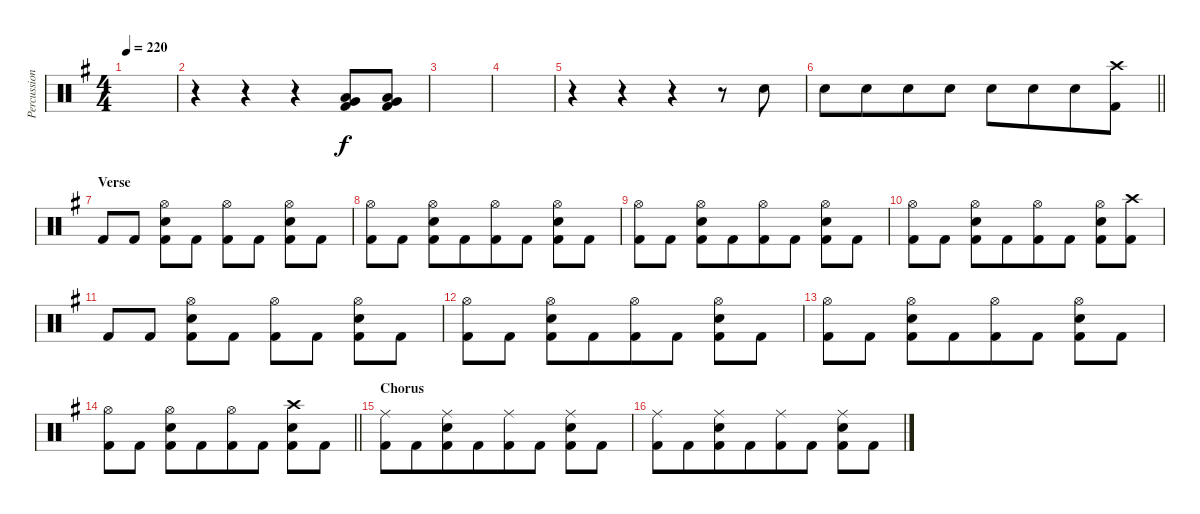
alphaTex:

\track ("Percussion" "Percussion") {instrument percussion}
\staff {score}
\articulation defaults
\ts (4 4)
\tempo 220
\clef neutral
\ks eminor
|
r.4 r.4 r.4 ("Very Low Tom (hit)" "Low Floor Tom (hit)" "Kick (hit) 2").8 ("Very Low Tom (hit)" "Low Floor Tom (hit)" "Kick (hit) 2").8 |
|
|
r.4{beam merge} r.4 r.4{beam merge} r.8 "Snare (hit) 2".8 |
\barLineRight lightlight "Snare (hit) 2".8 "Snare (hit) 2".8{beam merge} "Snare (hit) 2".8{beam merge} "Snare (hit) 2".8 "Snare (hit) 2".8 "Snare (hit) 2".8{beam merge} "Snare (hit) 2".8
("Crash high (hit)" "Kick (hit) 2").8 |
\section ("" "Verse")
"Kick (hit) 2".8{beam merge} "Kick (hit) 2".8 ("Hi-Hat (open)" "Snare (hit) 2" "Kick (hit) 2").8 "Kick (hit) 2".8 ("Hi-Hat (open)" "Kick (hit) 2").8 "Kick (hit) 2".8 ("Hi-Hat (open)" "Snare (hit) 2" "Kick (hit) 2").8{beam merge} "Kick (hit) 2".8 |
("Hi-Hat (open)" "Kick (hit) 2").8 "Kick (hit) 2".8 ("Hi-Hat (open)" "Snare (hit) 2" "Kick (hit) 2").8{beam merge} "Kick (hit) 2".8{beam merge} ("Hi-Hat (open)" "Kick (hit) 2").8{beam merge} "Kick (hit) 2".8 ("Hi-Hat (open)" "Snare (hit) 2" "Kick (hit) 2").8 "Kick (hit) 2".8 |
("Hi-Hat (open)" "Kick (hit) 2").8 "Kick (hit) 2".8 ("Hi-Hat (open)" "Snare (hit) 2" "Kick (hit) 2").8{beam merge} "Kick (hit) 2".8{beam merge} ("Hi-Hat (open)" "Kick (hit) 2").8{beam merge} "Kick (hit) 2".8 ("Hi-Hat (open)" "Snare (hit) 2" "Kick (hit) 2").8 "Kick (hit) 2".8 |
("Hi-Hat (open)" "Kick (hit) 2").8 "Kick (hit) 2".8 ("Hi-Hat (open)" "Snare (hit) 2" "Kick (hit) 2").8{beam merge} "Kick (hit) 2".8{beam merge} ("Hi-Hat (open)" "Kick (hit) 2").8{beam merge} "Kick (hit) 2".8 ("Hi-Hat (open)" "Snare (hit) 2" "Kick (hit) 2").8 ("Crash high (hit)" "Kick (hit) 2").8 |
"Kick (hit) 2".8{beam merge} "Kick (hit) 2".8 ("Hi-Hat (open)" "Snare (hit) 2" "Kick (hit) 2").8 "Kick (hit) 2".8 ("Hi-Hat (open)" "Kick (hit) 2").8 "Kick (hit) 2".8 ("Hi-Hat (open)" "Snare (hit) 2" "Kick (hit) 2").8{beam merge} "Kick (hit) 2".8 |
("Hi-Hat (open)" "Kick (hit) 2").8 "Kick (hit) 2".8 ("Hi-Hat (open)" "Snare (hit) 2" "Kick (hit) 2").8{beam merge} "Kick (hit) 2".8{beam merge} ("Hi-Hat (open)" "Kick (hit) 2").8{beam merge} "Kick (hit) 2".8 ("Hi-Hat (open)" "Snare (hit) 2" "Kick (hit) 2").8 "Kick (hit) 2".8 |
("Hi-Hat (open)" "Kick (hit) 2").8 "Kick (hit) 2".8 ("Hi-Hat (open)" "Snare (hit) 2" "Kick (hit) 2").8{beam merge} "Kick (hit) 2".8{beam merge} ("Hi-Hat (open)" "Kick (hit) 2").8{beam merge} "Kick (hit) 2".8 ("Hi-Hat (open)" "Snare (hit) 2" "Kick (hit) 2").8 "Kick (hit) 2".8 |
\barLineRight lightlight
("Hi-Hat (open)" "Kick (hit) 2").8 "Kick (hit) 2".8 ("Hi-Hat (open)" "Snare (hit) 2" "Kick (hit) 2").8{beam merge} "Kick (hit) 2".8{beam merge} ("Hi-Hat (open)" "Kick (hit) 2").8{beam merge} "Kick (hit) 2".8 ("Crash high (hit)" "Snare (hit) 2" "Kick (hit) 2").8 "Kick (hit) 2".8 |
\section ("" "Chorus")
("Ride (middle)" "Kick (hit) 2").8 "Kick (hit) 2".8{beam merge} ("Ride (middle)" "Snare (hit) 2" "Kick (hit) 2").8{beam merge} "Kick (hit) 2".8{beam merge} ("Ride (middle)" "Kick (hit) 2").8{beam merge} "Kick (hit) 2".8 ("Ride (middle)" "Snare (hit) 2" "Kick (hit) 2").8 "Kick (hit) 2".8 |
("Ride (middle)" "Kick (hit) 2").8 "Kick (hit) 2".8{beam merge} ("Ride (middle)" "Snare (hit) 2" "Kick (hit) 2").8{beam merge} "Kick (hit) 2".8{beam merge} ("Ride (middle)" "Kick (hit) 2").8{beam merge} "Kick (hit) 2".8 ("Ride (middle)" "Snare (hit) 2" "Kick (hit) 2").8 "Kick (hit) 2".8
